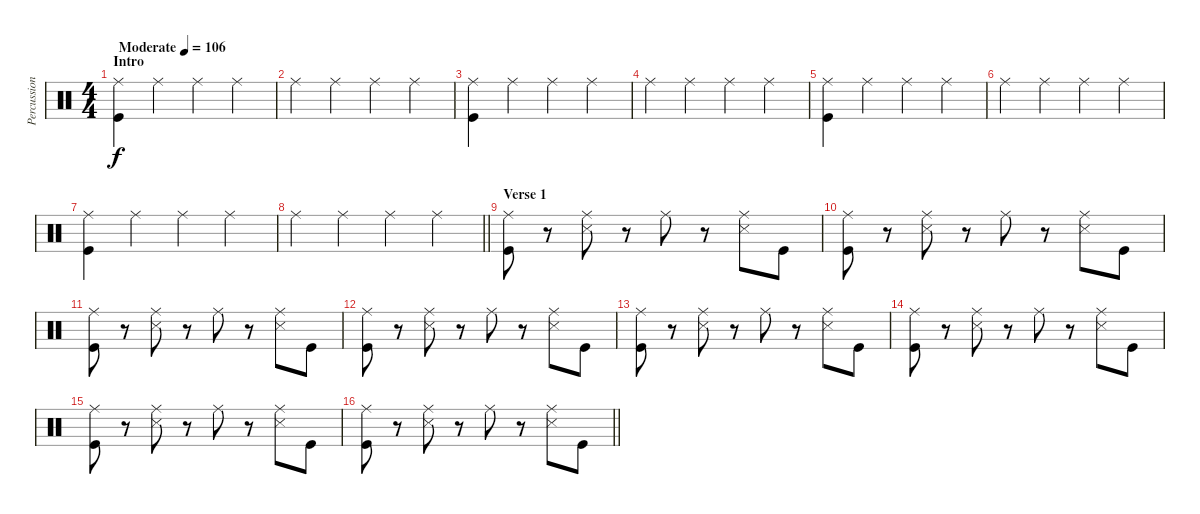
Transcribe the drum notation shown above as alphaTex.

\track ("Percussion" "Percussion") {instrument percussion}
\staff {score}
\articulation defaults
\ts (4 4)
\section ("" "Intro")
\tempo (106 "Moderate")
\clef neutral
\ks c
("Ride (middle)" "Kick (hit)").4{dy f} "Ride (middle)".4 "Ride (middle)".4 "Ride (middle)".4 |
"Ride (middle)".4 "Ride (middle)".4 "Ride (middle)".4 "Ride (middle)".4 |
("Ride (middle)" "Kick (hit)").4 "Ride (middle)".4 "Ride (middle)".4 "Ride (middle)".4 |
"Ride (middle)".4 "Ride (middle)".4 "Ride (middle)".4 "Ride (middle)".4 |
("Ride (middle)" "Kick (hit)").4 "Ride (middle)".4 "Ride (middle)".4 "Ride (middle)".4 |
"Ride (middle)".4 "Ride (middle)".4 "Ride (middle)".4 "Ride (middle)".4 |
("Ride (middle)" "Kick (hit)").4 "Ride (middle)".4 "Ride (middle)".4 "Ride (middle)".4 |
\barLineRight lightlight "Ride (middle)".4 "Ride (middle)".4 "Ride (middle)".4 "Ride (middle)".4
|
\section ("" "Verse 1")
("Ride (middle)" "Kick (hit)").8 r.8 ("Ride (middle)" "Snare (side stick) 3").8 r.8 "Ride (middle)".8 r.8 ("Ride (middle)" "Snare (side stick) 3").8 "Kick (hit)".8 |
("Ride (middle)" "Kick (hit)").8 r.8 ("Ride (middle)" "Snare (side stick) 3").8 r.8 "Ride (middle)".8 r.8 ("Ride (middle)" "Snare (side stick) 3").8 "Kick (hit)".8 |
("Ride (middle)" "Kick (hit)").8 r.8 ("Ride (middle)" "Snare (side stick) 3").8 r.8 "Ride (middle)".8 r.8 ("Ride (middle)" "Snare (side stick) 3").8 "Kick (hit)".8 |
("Ride (middle)" "Kick (hit)").8 r.8 ("Ride (middle)" "Snare (side stick) 3").8 r.8 "Ride (middle)".8 r.8 ("Ride (middle)" "Snare (side stick) 3").8 "Kick (hit)".8 |
("Ride (middle)" "Kick (hit)").8 r.8 ("Ride (middle)" "Snare (side stick) 3").8 r.8 "Ride (middle)".8 r.8 ("Ride (middle)" "Snare (side stick) 3").8 "Kick (hit)".8 |
("Ride (middle)" "Kick (hit)").8 r.8 ("Ride (middle)" "Snare (side stick) 3").8 r.8 "Ride (middle)".8 r.8 ("Ride (middle)" "Snare (side stick) 3").8 "Kick (hit)".8 |
("Ride (middle)" "Kick (hit)").8 r.8 ("Ride (middle)" "Snare (side stick) 3").8 r.8 "Ride (middle)".8 r.8 ("Ride (middle)" "Snare (side stick) 3").8 "Kick (hit)".8 |
\barLineRight lightlight
("Ride (middle)" "Kick (hit)").8 r.8 ("Ride (middle)" "Snare (side stick) 3").8 r.8 "Ride (middle)".8 r.8 ("Ride (middle)" "Snare (side stick) 3").8 "Kick (hit)".8
